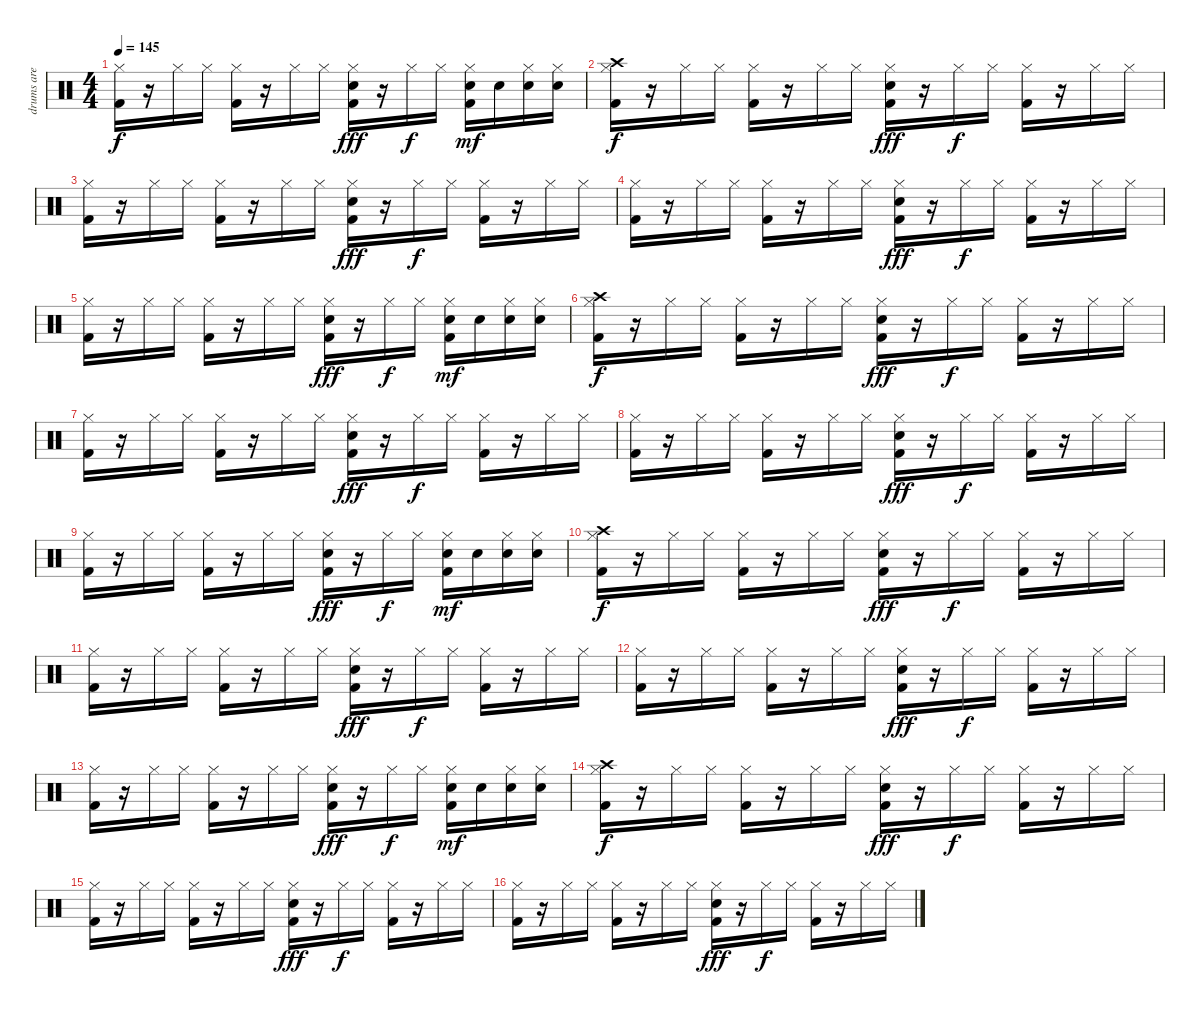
\track ("drums are cool   >.<" "drums are ") {instrument percussion}
\staff {score}
\articulation defaults
\ts (4 4)
\tempo 145
\clef neutral
\ks c
("Hi-Hat (closed)" "Kick (hit) 2").16{dy f} r.16 "Hi-Hat (closed)".16 "Hi-Hat (closed)".16 ("Hi-Hat (closed)" "Kick (hit) 2").16 r.16 "Hi-Hat (closed)".16 "Hi-Hat (closed)".16 ("Hi-Hat (closed)" "Snare (hit) 2" "Kick (hit) 2").16{dy fff} r.16 "Hi-Hat (closed)".16{dy f} "Hi-Hat (closed)".16 ("Hi-Hat (closed)" "Snare (hit) 2" "Kick (hit) 2").16{dy mf} "Snare (hit) 2".16 ("Hi-Hat (closed)" "Snare (hit) 2").16 ("Hi-Hat (closed)" "Snare (hit) 2").16 |
("Crash high (hit)" "Hi-Hat (closed)" "Kick (hit) 2").16{dy f} r.16 "Hi-Hat (closed)".16 "Hi-Hat (closed)".16 ("Hi-Hat (closed)" "Kick (hit) 2").16 r.16 "Hi-Hat (closed)".16 "Hi-Hat (closed)".16 ("Hi-Hat (closed)" "Snare (hit) 2" "Kick (hit) 2").16{dy fff} r.16 "Hi-Hat (closed)".16{dy f} "Hi-Hat (closed)".16 ("Hi-Hat (closed)" "Kick (hit) 2").16 r.16 "Hi-Hat (closed)".16 "Hi-Hat (closed)".16 |
("Hi-Hat (closed)" "Kick (hit) 2").16 r.16 "Hi-Hat (closed)".16 "Hi-Hat (closed)".16 ("Hi-Hat (closed)" "Kick (hit) 2").16 r.16 "Hi-Hat (closed)".16 "Hi-Hat (closed)".16 ("Hi-Hat (closed)" "Snare (hit) 2" "Kick (hit) 2").16{dy fff} r.16 "Hi-Hat (closed)".16{dy f} "Hi-Hat (closed)".16 ("Hi-Hat (closed)" "Kick (hit) 2").16 r.16 "Hi-Hat (closed)".16 "Hi-Hat (closed)".16 |
("Hi-Hat (closed)" "Kick (hit) 2").16 r.16 "Hi-Hat (closed)".16 "Hi-Hat (closed)".16 ("Hi-Hat (closed)" "Kick (hit) 2").16 r.16 "Hi-Hat (closed)".16 "Hi-Hat (closed)".16 ("Hi-Hat (closed)" "Snare (hit) 2" "Kick (hit) 2").16{dy fff} r.16 "Hi-Hat (closed)".16{dy f} "Hi-Hat (closed)".16 ("Hi-Hat (closed)" "Kick (hit) 2").16 r.16 "Hi-Hat (closed)".16 "Hi-Hat (closed)".16 |
("Hi-Hat (closed)" "Kick (hit) 2").16 r.16 "Hi-Hat (closed)".16 "Hi-Hat (closed)".16 ("Hi-Hat (closed)" "Kick (hit) 2").16 r.16 "Hi-Hat (closed)".16 "Hi-Hat (closed)".16 ("Hi-Hat (closed)" "Snare (hit) 2" "Kick (hit) 2").16{dy fff} r.16 "Hi-Hat (closed)".16{dy f} "Hi-Hat (closed)".16 ("Hi-Hat (closed)" "Snare (hit) 2" "Kick (hit) 2").16{dy mf} "Snare (hit) 2".16 ("Hi-Hat (closed)" "Snare (hit) 2").16 ("Hi-Hat (closed)" "Snare (hit) 2").16 |
("Crash high (hit)" "Hi-Hat (closed)" "Kick (hit) 2").16{dy f} r.16 "Hi-Hat (closed)".16 "Hi-Hat (closed)".16 ("Hi-Hat (closed)" "Kick (hit) 2").16 r.16 "Hi-Hat (closed)".16 "Hi-Hat (closed)".16 ("Hi-Hat (closed)" "Snare (hit) 2" "Kick (hit) 2").16{dy fff} r.16 "Hi-Hat (closed)".16{dy f} "Hi-Hat (closed)".16 ("Hi-Hat (closed)" "Kick (hit) 2").16 r.16 "Hi-Hat (closed)".16 "Hi-Hat (closed)".16 |
("Hi-Hat (closed)" "Kick (hit) 2").16 r.16 "Hi-Hat (closed)".16 "Hi-Hat (closed)".16 ("Hi-Hat (closed)" "Kick (hit) 2").16 r.16 "Hi-Hat (closed)".16 "Hi-Hat (closed)".16 ("Hi-Hat (closed)" "Snare (hit) 2" "Kick (hit) 2").16{dy fff} r.16 "Hi-Hat (closed)".16{dy f} "Hi-Hat (closed)".16 ("Hi-Hat (closed)" "Kick (hit) 2").16 r.16 "Hi-Hat (closed)".16 "Hi-Hat (closed)".16 |
("Hi-Hat (closed)" "Kick (hit) 2").16 r.16 "Hi-Hat (closed)".16 "Hi-Hat (closed)".16 ("Hi-Hat (closed)" "Kick (hit) 2").16 r.16 "Hi-Hat (closed)".16 "Hi-Hat (closed)".16 ("Hi-Hat (closed)" "Snare (hit) 2" "Kick (hit) 2").16{dy fff} r.16 "Hi-Hat (closed)".16{dy f} "Hi-Hat (closed)".16 ("Hi-Hat (closed)" "Kick (hit) 2").16 r.16 "Hi-Hat (closed)".16 "Hi-Hat (closed)".16 |
("Hi-Hat (closed)" "Kick (hit) 2").16 r.16 "Hi-Hat (closed)".16 "Hi-Hat (closed)".16 ("Hi-Hat (closed)" "Kick (hit) 2").16 r.16 "Hi-Hat (closed)".16 "Hi-Hat (closed)".16 ("Hi-Hat (closed)" "Snare (hit) 2" "Kick (hit) 2").16{dy fff} r.16 "Hi-Hat (closed)".16{dy f} "Hi-Hat (closed)".16 ("Hi-Hat (closed)" "Snare (hit) 2" "Kick (hit) 2").16{dy mf} "Snare (hit) 2".16 ("Hi-Hat (closed)" "Snare (hit) 2").16 ("Hi-Hat (closed)" "Snare (hit) 2").16 |
("Crash high (hit)" "Hi-Hat (closed)" "Kick (hit) 2").16{dy f} r.16 "Hi-Hat (closed)".16 "Hi-Hat (closed)".16 ("Hi-Hat (closed)" "Kick (hit) 2").16 r.16 "Hi-Hat (closed)".16 "Hi-Hat (closed)".16 ("Hi-Hat (closed)" "Snare (hit) 2" "Kick (hit) 2").16{dy fff} r.16 "Hi-Hat (closed)".16{dy f} "Hi-Hat (closed)".16 ("Hi-Hat (closed)" "Kick (hit) 2").16 r.16 "Hi-Hat (closed)".16 "Hi-Hat (closed)".16 |
("Hi-Hat (closed)" "Kick (hit) 2").16 r.16 "Hi-Hat (closed)".16 "Hi-Hat (closed)".16 ("Hi-Hat (closed)" "Kick (hit) 2").16 r.16 "Hi-Hat (closed)".16 "Hi-Hat (closed)".16 ("Hi-Hat (closed)" "Snare (hit) 2" "Kick (hit) 2").16{dy fff} r.16 "Hi-Hat (closed)".16{dy f} "Hi-Hat (closed)".16 ("Hi-Hat (closed)" "Kick (hit) 2").16 r.16 "Hi-Hat (closed)".16 "Hi-Hat (closed)".16 |
("Hi-Hat (closed)" "Kick (hit) 2").16 r.16 "Hi-Hat (closed)".16 "Hi-Hat (closed)".16 ("Hi-Hat (closed)" "Kick (hit) 2").16 r.16 "Hi-Hat (closed)".16 "Hi-Hat (closed)".16 ("Hi-Hat (closed)" "Snare (hit) 2" "Kick (hit) 2").16{dy fff} r.16 "Hi-Hat (closed)".16{dy f} "Hi-Hat (closed)".16 ("Hi-Hat (closed)" "Kick (hit) 2").16 r.16 "Hi-Hat (closed)".16 "Hi-Hat (closed)".16 |
("Hi-Hat (closed)" "Kick (hit) 2").16 r.16 "Hi-Hat (closed)".16 "Hi-Hat (closed)".16 ("Hi-Hat (closed)" "Kick (hit) 2").16 r.16 "Hi-Hat (closed)".16 "Hi-Hat (closed)".16 ("Hi-Hat (closed)" "Snare (hit) 2" "Kick (hit) 2").16{dy fff} r.16 "Hi-Hat (closed)".16{dy f} "Hi-Hat (closed)".16 ("Hi-Hat (closed)" "Snare (hit) 2" "Kick (hit) 2").16{dy mf} "Snare (hit) 2".16 ("Hi-Hat (closed)" "Snare (hit) 2").16 ("Hi-Hat (closed)" "Snare (hit) 2").16 |
("Crash high (hit)" "Hi-Hat (closed)" "Kick (hit) 2").16{dy f} r.16 "Hi-Hat (closed)".16 "Hi-Hat (closed)".16 ("Hi-Hat (closed)" "Kick (hit) 2").16 r.16 "Hi-Hat (closed)".16 "Hi-Hat (closed)".16 ("Hi-Hat (closed)" "Snare (hit) 2" "Kick (hit) 2").16{dy fff} r.16 "Hi-Hat (closed)".16{dy f} "Hi-Hat (closed)".16 ("Hi-Hat (closed)" "Kick (hit) 2").16 r.16 "Hi-Hat (closed)".16 "Hi-Hat (closed)".16 |
("Hi-Hat (closed)" "Kick (hit) 2").16 r.16 "Hi-Hat (closed)".16 "Hi-Hat (closed)".16 ("Hi-Hat (closed)" "Kick (hit) 2").16 r.16 "Hi-Hat (closed)".16 "Hi-Hat (closed)".16 ("Hi-Hat (closed)" "Snare (hit) 2" "Kick (hit) 2").16{dy fff} r.16 "Hi-Hat (closed)".16{dy f} "Hi-Hat (closed)".16 ("Hi-Hat (closed)" "Kick (hit) 2").16 r.16 "Hi-Hat (closed)".16 "Hi-Hat (closed)".16 |
("Hi-Hat (closed)" "Kick (hit) 2").16 r.16 "Hi-Hat (closed)".16 "Hi-Hat (closed)".16 ("Hi-Hat (closed)" "Kick (hit) 2").16 r.16 "Hi-Hat (closed)".16 "Hi-Hat (closed)".16 ("Hi-Hat (closed)" "Snare (hit) 2" "Kick (hit) 2").16{dy fff} r.16 "Hi-Hat (closed)".16{dy f} "Hi-Hat (closed)".16 ("Hi-Hat (closed)" "Kick (hit) 2").16 r.16 "Hi-Hat (closed)".16 "Hi-Hat (closed)".16
